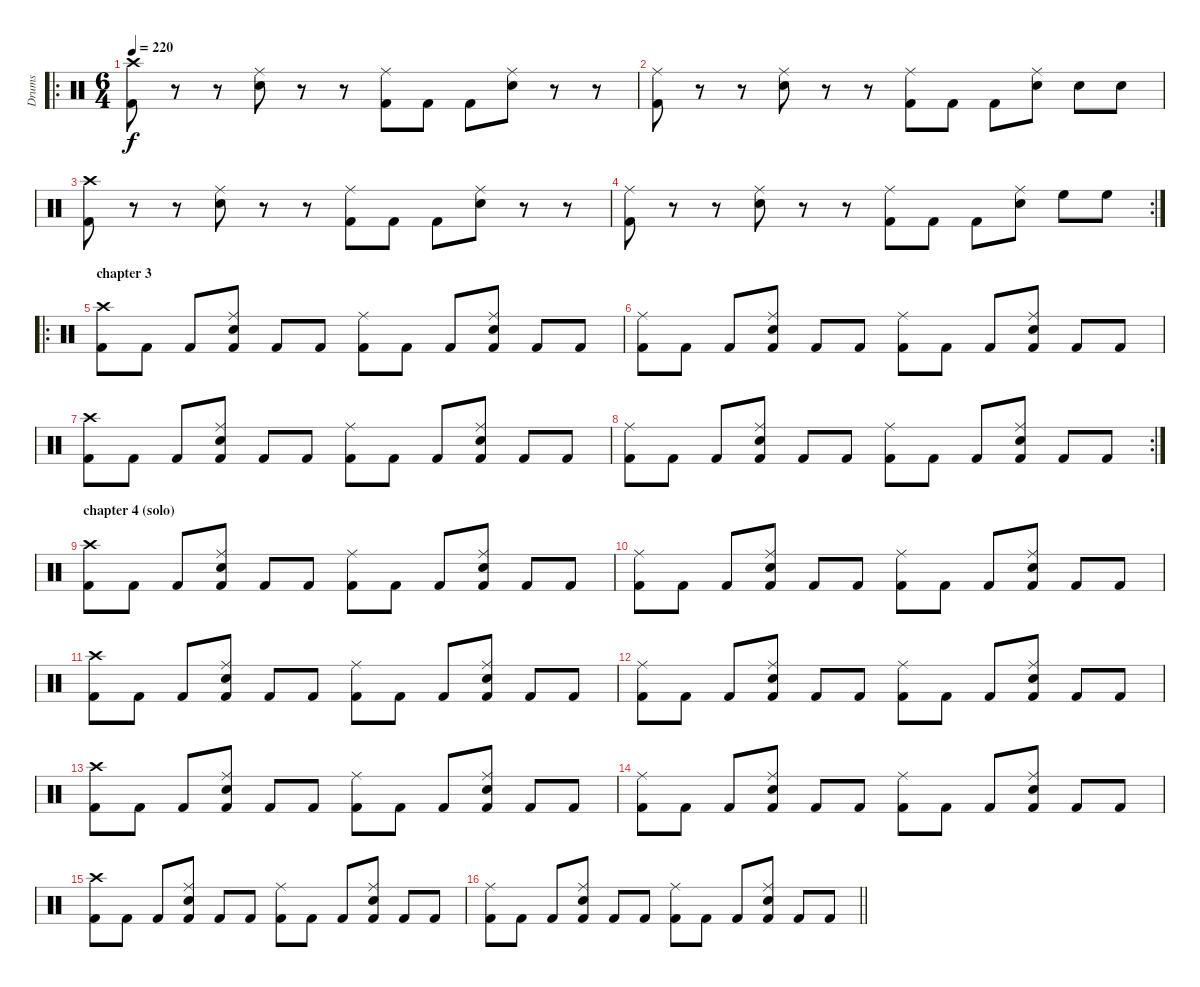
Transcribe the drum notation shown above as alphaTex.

\track ("Drums" "Drums") {instrument percussion}
\staff {score}
\articulation defaults
\ro
\ts (6 4)
\tempo 220
\clef neutral
\ks c
("Crash high (hit)" "Kick (hit) 2").8{dy f} r.8 r.8 ("Ride (middle)" "Snare (hit) 2").8 r.8 r.8 ("Ride (middle)" "Kick (hit) 2").8 "Kick (hit) 2".8 "Kick (hit) 2".8 ("Ride (middle)" "Snare (hit) 2").8 r.8 r.8 |
("Ride (middle)" "Kick (hit) 2").8 r.8 r.8 ("Ride (middle)" "Snare (hit) 2").8 r.8 r.8 ("Ride (middle)" "Kick (hit) 2").8 "Kick (hit) 2".8 "Kick (hit) 2".8 ("Ride (middle)" "Snare (hit) 2").8 "Snare (hit) 2".8 "Snare (hit) 2".8 |
("Crash high (hit)" "Kick (hit) 2").8 r.8 r.8 ("Ride (middle)" "Snare (hit) 2").8 r.8 r.8 ("Ride (middle)" "Kick (hit) 2").8 "Kick (hit) 2".8 "Kick (hit) 2".8 ("Ride (middle)" "Snare (hit) 2").8 r.8 r.8 |
\rc 2
("Ride (middle)" "Kick (hit) 2").8 r.8 r.8 ("Ride (middle)" "Snare (hit) 2").8 r.8 r.8 ("Ride (middle)" "Kick (hit) 2").8 "Kick (hit) 2".8 "Kick (hit) 2".8 ("Ride (middle)" "Snare (hit) 2").8 "High Floor Tom (hit)".8 "High Floor Tom (hit)".8 |
\ro
\section ("" "chapter 3")
("Crash high (hit)" "Kick (hit) 2").8 "Kick (hit) 2".8 "Kick (hit) 2".8 ("Ride (middle)" "Snare (hit) 2" "Kick (hit) 2").8 "Kick (hit) 2".8 "Kick (hit) 2".8 ("Ride (middle)" "Kick (hit) 2").8 "Kick (hit) 2".8 "Kick (hit) 2".8 ("Ride (middle)" "Snare (hit) 2" "Kick (hit) 2").8 "Kick (hit) 2".8 "Kick (hit) 2".8 |
("Ride (middle)" "Kick (hit) 2").8 "Kick (hit) 2".8 "Kick (hit) 2".8 ("Ride (middle)" "Snare (hit) 2" "Kick (hit) 2").8 "Kick (hit) 2".8 "Kick (hit) 2".8 ("Ride (middle)" "Kick (hit) 2").8 "Kick (hit) 2".8 "Kick (hit) 2".8 ("Ride (middle)" "Snare (hit) 2" "Kick (hit) 2").8 "Kick (hit) 2".8 "Kick (hit) 2".8 |
("Crash high (hit)" "Kick (hit) 2").8 "Kick (hit) 2".8 "Kick (hit) 2".8 ("Ride (middle)" "Snare (hit) 2" "Kick (hit) 2").8 "Kick (hit) 2".8 "Kick (hit) 2".8 ("Ride (middle)" "Kick (hit) 2").8 "Kick (hit) 2".8 "Kick (hit) 2".8 ("Ride (middle)" "Snare (hit) 2" "Kick (hit) 2").8 "Kick (hit) 2".8 "Kick (hit) 2".8 |
\rc 2
("Ride (middle)" "Kick (hit) 2").8 "Kick (hit) 2".8 "Kick (hit) 2".8 ("Ride (middle)" "Snare (hit) 2" "Kick (hit) 2").8 "Kick (hit) 2".8 "Kick (hit) 2".8 ("Ride (middle)" "Kick (hit) 2").8 "Kick (hit) 2".8 "Kick (hit) 2".8 ("Ride (middle)" "Snare (hit) 2" "Kick (hit) 2").8 "Kick (hit) 2".8 "Kick (hit) 2".8 |
\section ("" "chapter 4 (solo)")
("Crash high (hit)" "Kick (hit) 2").8 "Kick (hit) 2".8 "Kick (hit) 2".8 ("Ride (middle)" "Snare (hit) 2" "Kick (hit) 2").8 "Kick (hit) 2".8 "Kick (hit) 2".8 ("Ride (middle)" "Kick (hit) 2").8 "Kick (hit) 2".8 "Kick (hit) 2".8 ("Ride (middle)" "Snare (hit) 2" "Kick (hit) 2").8 "Kick (hit) 2".8 "Kick (hit) 2".8 |
("Ride (middle)" "Kick (hit) 2").8 "Kick (hit) 2".8 "Kick (hit) 2".8 ("Ride (middle)" "Snare (hit) 2" "Kick (hit) 2").8 "Kick (hit) 2".8 "Kick (hit) 2".8 ("Ride (middle)" "Kick (hit) 2").8 "Kick (hit) 2".8 "Kick (hit) 2".8 ("Ride (middle)" "Snare (hit) 2" "Kick (hit) 2").8 "Kick (hit) 2".8 "Kick (hit) 2".8 |
("Crash high (hit)" "Kick (hit) 2").8 "Kick (hit) 2".8 "Kick (hit) 2".8 ("Ride (middle)" "Snare (hit) 2" "Kick (hit) 2").8 "Kick (hit) 2".8 "Kick (hit) 2".8 ("Ride (middle)" "Kick (hit) 2").8 "Kick (hit) 2".8 "Kick (hit) 2".8 ("Ride (middle)" "Snare (hit) 2" "Kick (hit) 2").8 "Kick (hit) 2".8 "Kick (hit) 2".8 |
("Ride (middle)" "Kick (hit) 2").8 "Kick (hit) 2".8 "Kick (hit) 2".8 ("Ride (middle)" "Snare (hit) 2" "Kick (hit) 2").8 "Kick (hit) 2".8 "Kick (hit) 2".8 ("Ride (middle)" "Kick (hit) 2").8 "Kick (hit) 2".8 "Kick (hit) 2".8 ("Ride (middle)" "Snare (hit) 2" "Kick (hit) 2").8 "Kick (hit) 2".8 "Kick (hit) 2".8 |
("Crash high (hit)" "Kick (hit) 2").8 "Kick (hit) 2".8 "Kick (hit) 2".8 ("Ride (middle)" "Snare (hit) 2" "Kick (hit) 2").8 "Kick (hit) 2".8 "Kick (hit) 2".8 ("Ride (middle)" "Kick (hit) 2").8 "Kick (hit) 2".8 "Kick (hit) 2".8 ("Ride (middle)" "Snare (hit) 2" "Kick (hit) 2").8 "Kick (hit) 2".8 "Kick (hit) 2".8 |
("Ride (middle)" "Kick (hit) 2").8 "Kick (hit) 2".8 "Kick (hit) 2".8 ("Ride (middle)" "Snare (hit) 2" "Kick (hit) 2").8 "Kick (hit) 2".8 "Kick (hit) 2".8 ("Ride (middle)" "Kick (hit) 2").8 "Kick (hit) 2".8 "Kick (hit) 2".8 ("Ride (middle)" "Snare (hit) 2" "Kick (hit) 2").8 "Kick (hit) 2".8 "Kick (hit) 2".8 |
("Crash high (hit)" "Kick (hit) 2").8 "Kick (hit) 2".8 "Kick (hit) 2".8 ("Ride (middle)" "Snare (hit) 2" "Kick (hit) 2").8 "Kick (hit) 2".8 "Kick (hit) 2".8 ("Ride (middle)" "Kick (hit) 2").8 "Kick (hit) 2".8 "Kick (hit) 2".8 ("Ride (middle)" "Snare (hit) 2" "Kick (hit) 2").8 "Kick (hit) 2".8 "Kick (hit) 2".8 |
\barLineRight lightlight
("Ride (middle)" "Kick (hit) 2").8 "Kick (hit) 2".8 "Kick (hit) 2".8 ("Ride (middle)" "Snare (hit) 2" "Kick (hit) 2").8 "Kick (hit) 2".8 "Kick (hit) 2".8 ("Ride (middle)" "Kick (hit) 2").8 "Kick (hit) 2".8 "Kick (hit) 2".8 ("Ride (middle)" "Snare (hit) 2" "Kick (hit) 2").8 "Kick (hit) 2".8 "Kick (hit) 2".8
